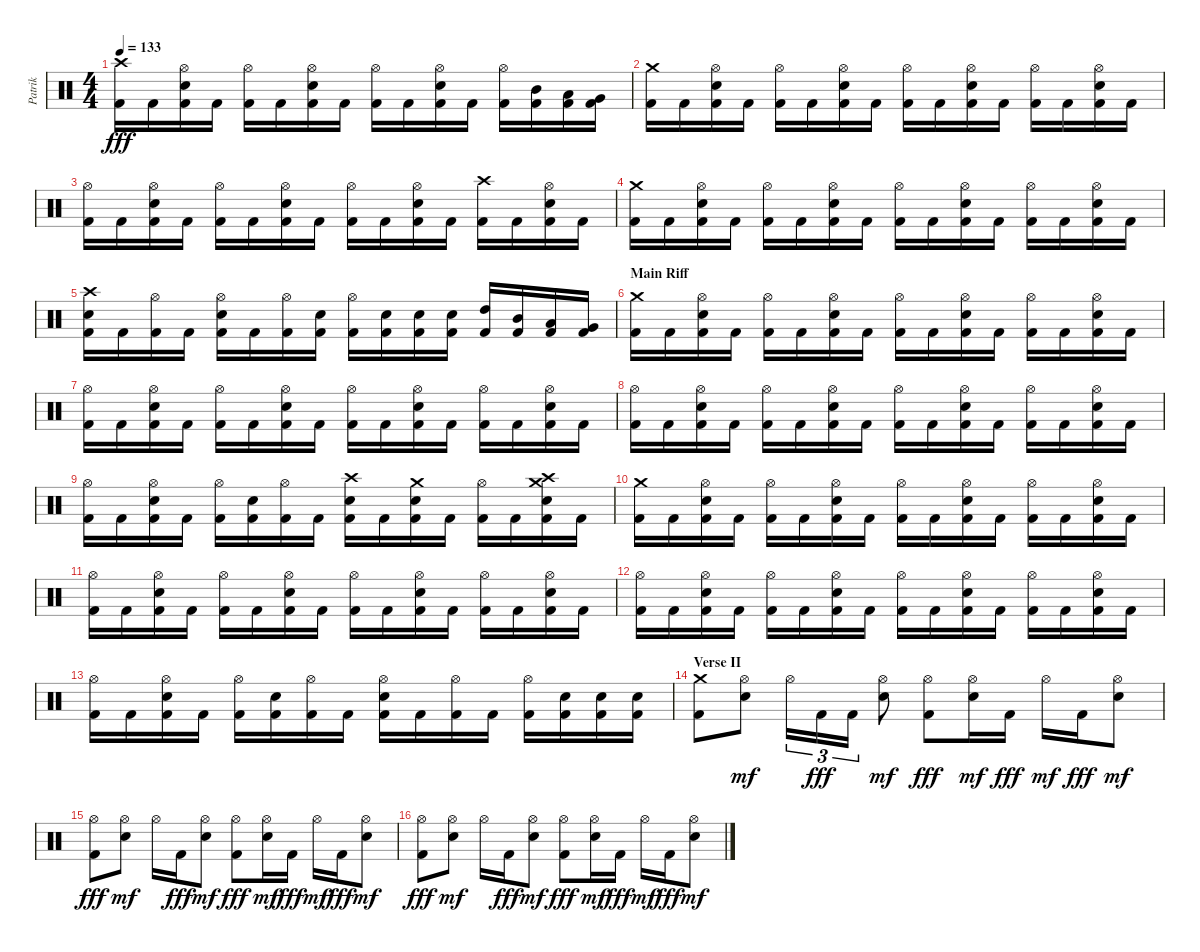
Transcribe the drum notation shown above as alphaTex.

\track ("Patrik" "Patrik") {instrument percussion}
\staff {score}
\articulation defaults
\ts (4 4)
\tempo 133
\clef neutral
\ks c
("Crash high (hit)" "Kick (hit) 2").16{dy fff} "Kick (hit) 2".16 ("Hi-Hat (open)" "Electric Snare (hit)" "Kick (hit) 2").16 "Kick (hit) 2".16 ("Hi-Hat (open)" "Kick (hit) 2").16 "Kick (hit) 2".16 ("Hi-Hat (open)" "Electric Snare (hit)" "Kick (hit) 2").16 "Kick (hit) 2".16 ("Hi-Hat (open)" "Kick (hit) 2").16 "Kick (hit) 2".16 ("Hi-Hat (open)" "Electric Snare (hit)" "Kick (hit) 2").16 "Kick (hit) 2".16 ("Hi-Hat (open)" "Kick (hit) 2").16 ("Mid Tom (hit)" "Kick (hit) 2").16 ("Low Tom (hit)" "Kick (hit) 2").16 ("Very Low Tom (hit)" "Kick (hit) 2").16 |
("Crash medium (hit)" "Kick (hit) 2").16 "Kick (hit) 2".16 ("Hi-Hat (open)" "Electric Snare (hit)" "Kick (hit) 2").16 "Kick (hit) 2".16 ("Hi-Hat (open)" "Kick (hit) 2").16 "Kick (hit) 2".16 ("Hi-Hat (open)" "Electric Snare (hit)" "Kick (hit) 2").16 "Kick (hit) 2".16 ("Hi-Hat (open)" "Kick (hit) 2").16 "Kick (hit) 2".16 ("Hi-Hat (open)" "Electric Snare (hit)" "Kick (hit) 2").16 "Kick (hit) 2".16 ("Hi-Hat (open)" "Kick (hit) 2").16 "Kick (hit) 2".16 ("Hi-Hat (open)" "Electric Snare (hit)" "Kick (hit) 2").16 "Kick (hit) 2".16 |
("Hi-Hat (open)" "Kick (hit) 2").16 "Kick (hit) 2".16 ("Hi-Hat (open)" "Electric Snare (hit)" "Kick (hit) 2").16 "Kick (hit) 2".16 ("Hi-Hat (open)" "Kick (hit) 2").16 "Kick (hit) 2".16 ("Hi-Hat (open)" "Electric Snare (hit)" "Kick (hit) 2").16 "Kick (hit) 2".16 ("Hi-Hat (open)" "Kick (hit) 2").16 "Kick (hit) 2".16 ("Hi-Hat (open)" "Electric Snare (hit)" "Kick (hit) 2").16 "Kick (hit) 2".16 ("Crash high (hit)" "Kick (hit) 2").16 "Kick (hit) 2".16 ("Hi-Hat (open)" "Electric Snare (hit)" "Kick (hit) 2").16 "Kick (hit) 2".16 |
("Crash medium (hit)" "Kick (hit) 2").16 "Kick (hit) 2".16 ("Hi-Hat (open)" "Electric Snare (hit)" "Kick (hit) 2").16 "Kick (hit) 2".16 ("Hi-Hat (open)" "Kick (hit) 2").16 "Kick (hit) 2".16 ("Hi-Hat (open)" "Electric Snare (hit)" "Kick (hit) 2").16 "Kick (hit) 2".16 ("Hi-Hat (open)" "Kick (hit) 2").16 "Kick (hit) 2".16 ("Hi-Hat (open)" "Electric Snare (hit)" "Kick (hit) 2").16 "Kick (hit) 2".16 ("Hi-Hat (open)" "Kick (hit) 2").16 "Kick (hit) 2".16 ("Hi-Hat (open)" "Electric Snare (hit)" "Kick (hit) 2").16 "Kick (hit) 2".16 |
("Crash high (hit)" "Electric Snare (hit)" "Kick (hit) 2").16 "Kick (hit) 2".16 ("Hi-Hat (open)" "Kick (hit) 2").16 "Kick (hit) 2".16 ("Hi-Hat (open)" "Electric Snare (hit)" "Kick (hit) 2").16 "Kick (hit) 2".16 ("Hi-Hat (open)" "Kick (hit) 2").16 ("Electric Snare (hit)" "Kick (hit) 2").16 ("Hi-Hat (open)" "Kick (hit) 2").16 ("Electric Snare (hit)" "Kick (hit) 2").16 ("Electric Snare (hit)" "Kick (hit) 2").16 ("Electric Snare (hit)" "Kick (hit) 2").16 ("High Tom (hit)" "Kick (hit) 2").16 ("Mid Tom (hit)" "Kick (hit) 2").16 ("Low Tom (hit)" "Kick (hit) 2").16 ("Very Low Tom (hit)" "Kick (hit) 2").16 |
\section ("" "Main Riff")
("Crash medium (hit)" "Kick (hit) 2").16 "Kick (hit) 2".16 ("Hi-Hat (open)" "Electric Snare (hit)" "Kick (hit) 2").16 "Kick (hit) 2".16 ("Hi-Hat (open)" "Kick (hit) 2").16 "Kick (hit) 2".16 ("Hi-Hat (open)" "Electric Snare (hit)" "Kick (hit) 2").16 "Kick (hit) 2".16 ("Hi-Hat (open)" "Kick (hit) 2").16 "Kick (hit) 2".16 ("Hi-Hat (open)" "Electric Snare (hit)" "Kick (hit) 2").16 "Kick (hit) 2".16 ("Hi-Hat (open)" "Kick (hit) 2").16 "Kick (hit) 2".16 ("Hi-Hat (open)" "Electric Snare (hit)" "Kick (hit) 2").16 "Kick (hit) 2".16 |
("Hi-Hat (open)" "Kick (hit) 2").16 "Kick (hit) 2".16 ("Hi-Hat (open)" "Electric Snare (hit)" "Kick (hit) 2").16 "Kick (hit) 2".16 ("Hi-Hat (open)" "Kick (hit) 2").16 "Kick (hit) 2".16 ("Hi-Hat (open)" "Electric Snare (hit)" "Kick (hit) 2").16 "Kick (hit) 2".16 ("Hi-Hat (open)" "Kick (hit) 2").16 "Kick (hit) 2".16 ("Hi-Hat (open)" "Electric Snare (hit)" "Kick (hit) 2").16 "Kick (hit) 2".16 ("Hi-Hat (open)" "Kick (hit) 2").16 "Kick (hit) 2".16 ("Hi-Hat (open)" "Electric Snare (hit)" "Kick (hit) 2").16 "Kick (hit) 2".16 |
("Hi-Hat (open)" "Kick (hit) 2").16 "Kick (hit) 2".16 ("Hi-Hat (open)" "Electric Snare (hit)" "Kick (hit) 2").16 "Kick (hit) 2".16 ("Hi-Hat (open)" "Kick (hit) 2").16 "Kick (hit) 2".16 ("Hi-Hat (open)" "Electric Snare (hit)" "Kick (hit) 2").16 "Kick (hit) 2".16 ("Hi-Hat (open)" "Kick (hit) 2").16 "Kick (hit) 2".16 ("Hi-Hat (open)" "Electric Snare (hit)" "Kick (hit) 2").16 "Kick (hit) 2".16 ("Hi-Hat (open)" "Kick (hit) 2").16 "Kick (hit) 2".16 ("Hi-Hat (open)" "Electric Snare (hit)" "Kick (hit) 2").16 "Kick (hit) 2".16 |
("Hi-Hat (open)" "Kick (hit) 2").16 "Kick (hit) 2".16 ("Hi-Hat (open)" "Electric Snare (hit)" "Kick (hit) 2").16 "Kick (hit) 2".16 ("Hi-Hat (open)" "Kick (hit) 2").16 ("Electric Snare (hit)" "Kick (hit) 2").16 ("Hi-Hat (open)" "Kick (hit) 2").16 "Kick (hit) 2".16 ("Crash high (hit)" "Electric Snare (hit)" "Kick (hit) 2").16 "Kick (hit) 2".16 ("Crash medium (hit)" "Electric Snare (hit)" "Kick (hit) 2").16 "Kick (hit) 2".16 ("Hi-Hat (open)" "Kick (hit) 2").16 "Kick (hit) 2".16 ("Crash high (hit)" "Crash medium (hit)" "Electric Snare (hit)" "Kick (hit) 2").16 "Kick (hit) 2".16 |
("Crash medium (hit)" "Kick (hit) 2").16 "Kick (hit) 2".16 ("Hi-Hat (open)" "Electric Snare (hit)" "Kick (hit) 2").16 "Kick (hit) 2".16 ("Hi-Hat (open)" "Kick (hit) 2").16 "Kick (hit) 2".16 ("Hi-Hat (open)" "Electric Snare (hit)" "Kick (hit) 2").16 "Kick (hit) 2".16 ("Hi-Hat (open)" "Kick (hit) 2").16 "Kick (hit) 2".16 ("Hi-Hat (open)" "Electric Snare (hit)" "Kick (hit) 2").16 "Kick (hit) 2".16 ("Hi-Hat (open)" "Kick (hit) 2").16 "Kick (hit) 2".16 ("Hi-Hat (open)" "Electric Snare (hit)" "Kick (hit) 2").16 "Kick (hit) 2".16 |
("Hi-Hat (open)" "Kick (hit) 2").16 "Kick (hit) 2".16 ("Hi-Hat (open)" "Electric Snare (hit)" "Kick (hit) 2").16 "Kick (hit) 2".16 ("Hi-Hat (open)" "Kick (hit) 2").16 "Kick (hit) 2".16 ("Hi-Hat (open)" "Electric Snare (hit)" "Kick (hit) 2").16 "Kick (hit) 2".16 ("Hi-Hat (open)" "Kick (hit) 2").16 "Kick (hit) 2".16 ("Hi-Hat (open)" "Electric Snare (hit)" "Kick (hit) 2").16 "Kick (hit) 2".16 ("Hi-Hat (open)" "Kick (hit) 2").16 "Kick (hit) 2".16 ("Hi-Hat (open)" "Electric Snare (hit)" "Kick (hit) 2").16 "Kick (hit) 2".16 |
("Hi-Hat (open)" "Kick (hit) 2").16 "Kick (hit) 2".16 ("Hi-Hat (open)" "Electric Snare (hit)" "Kick (hit) 2").16 "Kick (hit) 2".16 ("Hi-Hat (open)" "Kick (hit) 2").16 "Kick (hit) 2".16 ("Hi-Hat (open)" "Electric Snare (hit)" "Kick (hit) 2").16 "Kick (hit) 2".16 ("Hi-Hat (open)" "Kick (hit) 2").16 "Kick (hit) 2".16 ("Hi-Hat (open)" "Electric Snare (hit)" "Kick (hit) 2").16 "Kick (hit) 2".16 ("Hi-Hat (open)" "Kick (hit) 2").16 "Kick (hit) 2".16 ("Hi-Hat (open)" "Electric Snare (hit)" "Kick (hit) 2").16 "Kick (hit) 2".16 |
("Hi-Hat (open)" "Kick (hit) 2").16 "Kick (hit) 2".16 ("Hi-Hat (open)" "Electric Snare (hit)" "Kick (hit) 2").16 "Kick (hit) 2".16 ("Hi-Hat (open)" "Kick (hit) 2").16 ("Electric Snare (hit)" "Kick (hit) 2").16 ("Hi-Hat (open)" "Kick (hit) 2").16 "Kick (hit) 2".16 ("Hi-Hat (open)" "Electric Snare (hit)" "Kick (hit) 2").16 "Kick (hit) 2".16 ("Hi-Hat (open)" "Kick (hit) 2").16 "Kick (hit) 2".16 ("Hi-Hat (open)" "Kick (hit) 2").16 ("Electric Snare (hit)" "Kick (hit) 2").16 ("Electric Snare (hit)" "Kick (hit) 2").16 ("Electric Snare (hit)" "Kick (hit) 2").16 |
\section ("" "Verse II")
("Crash medium (hit)" "Kick (hit) 2").8 ("Hi-Hat (open)" "Electric Snare (hit)").8{dy mf} "Hi-Hat (open)".16{tu (3 2)} "Kick (hit) 2".16{tu (3 2) dy fff} "Kick (hit) 2".16{tu (3 2)} ("Hi-Hat (open)" "Electric Snare (hit)").8{dy mf} ("Hi-Hat (open)" "Kick (hit) 2").8{dy fff} ("Hi-Hat (open)" "Electric Snare (hit)").16{dy mf} "Kick (hit) 2".16{dy fff} "Hi-Hat (open)".16{dy mf} "Kick (hit) 2".16{dy fff} ("Hi-Hat (open)" "Electric Snare (hit)").8{dy mf} |
("Hi-Hat (open)" "Kick (hit) 2").8{dy fff} ("Hi-Hat (open)" "Electric Snare (hit)").8{dy mf} "Hi-Hat (open)".16 "Kick (hit) 2".16{dy fff} ("Hi-Hat (open)" "Electric Snare (hit)").8{dy mf} ("Hi-Hat (open)" "Kick (hit) 2").8{dy fff} ("Hi-Hat (open)" "Electric Snare (hit)").16{dy mf} "Kick (hit) 2".16{dy fff} "Hi-Hat (open)".16{dy mf} "Kick (hit) 2".16{dy fff} ("Hi-Hat (open)" "Electric Snare (hit)").8{dy mf} |
("Hi-Hat (open)" "Kick (hit) 2").8{dy fff} ("Hi-Hat (open)" "Electric Snare (hit)").8{dy mf} "Hi-Hat (open)".16 "Kick (hit) 2".16{dy fff} ("Hi-Hat (open)" "Electric Snare (hit)").8{dy mf} ("Hi-Hat (open)" "Kick (hit) 2").8{dy fff} ("Hi-Hat (open)" "Electric Snare (hit)").16{dy mf} "Kick (hit) 2".16{dy fff} "Hi-Hat (open)".16{dy mf} "Kick (hit) 2".16{dy fff} ("Hi-Hat (open)" "Electric Snare (hit)").8{dy mf}
